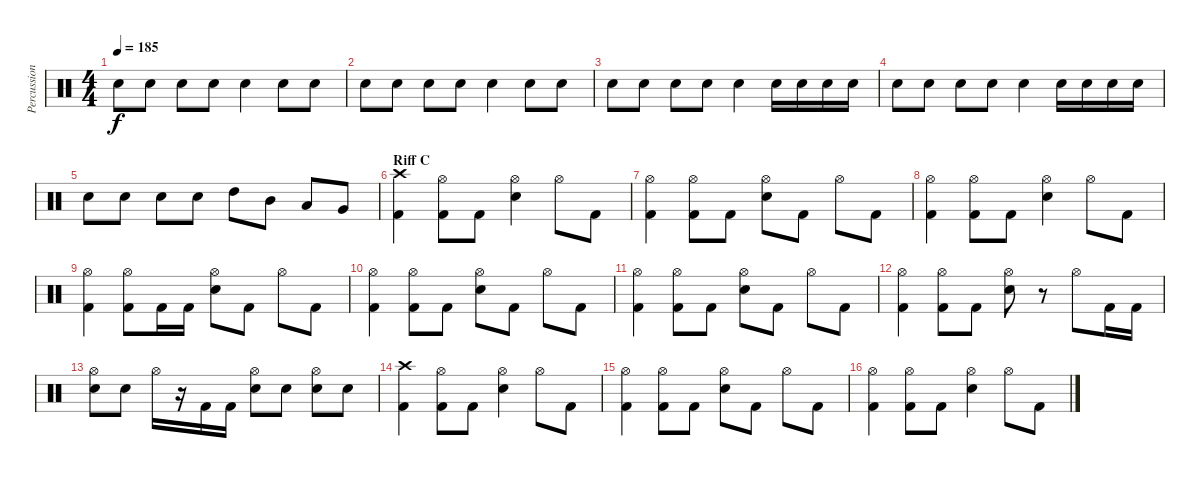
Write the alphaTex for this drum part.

\track ("Percussions" "Percussion") {instrument percussion}
\staff {score}
\articulation defaults
\ts (4 4)
\tempo 185
\clef neutral
\ks c "Electric Snare (hit)".8{dy f} "Electric Snare (hit)".8 "Electric Snare (hit)".8 "Electric Snare (hit)".8 "Electric Snare (hit)".4 "Electric Snare (hit)".8 "Electric Snare (hit)".8
|
"Electric Snare (hit)".8 "Electric Snare (hit)".8 "Electric Snare (hit)".8 "Electric Snare (hit)".8 "Electric Snare (hit)".4 "Electric Snare (hit)".8 "Electric Snare (hit)".8 |
"Electric Snare (hit)".8 "Electric Snare (hit)".8 "Electric Snare (hit)".8 "Electric Snare (hit)".8 "Electric Snare (hit)".4 "Electric Snare (hit)".16 "Electric Snare (hit)".16 "Electric Snare (hit)".16 "Electric Snare (hit)".16 |
"Electric Snare (hit)".8 "Electric Snare (hit)".8 "Electric Snare (hit)".8 "Electric Snare (hit)".8 "Electric Snare (hit)".4 "Electric Snare (hit)".16 "Electric Snare (hit)".16 "Electric Snare (hit)".16 "Electric Snare (hit)".16 |
"Electric Snare (hit)".8 "Electric Snare (hit)".8 "Electric Snare (hit)".8 "Electric Snare (hit)".8 "High Tom (hit)".8 "Mid Tom (hit)".8 "Low Tom (hit)".8 "Very Low Tom (hit)".8 |
\section ("" "Riff C")
("Crash high (hit)" "Kick (hit) 2").4 ("Hi-Hat (open)" "Kick (hit) 2").8 "Kick (hit) 2".8 ("Hi-Hat (open)" "Snare (hit) 2").4 "Hi-Hat (open)".8 "Kick (hit) 2".8 |
("Hi-Hat (open)" "Kick (hit) 2").4 ("Hi-Hat (open)" "Kick (hit) 2").8 "Kick (hit) 2".8 ("Hi-Hat (open)" "Snare (hit) 2").8 "Kick (hit) 2".8 "Hi-Hat (open)".8 "Kick (hit) 2".8 |
("Hi-Hat (open)" "Kick (hit) 2").4 ("Hi-Hat (open)" "Kick (hit) 2").8 "Kick (hit) 2".8 ("Hi-Hat (open)" "Snare (hit) 2").4 "Hi-Hat (open)".8 "Kick (hit) 2".8 |
("Hi-Hat (open)" "Kick (hit) 2").4 ("Hi-Hat (open)" "Kick (hit) 2").8 "Kick (hit) 2".16 "Kick (hit) 2".16 ("Hi-Hat (open)" "Snare (hit) 2").8 "Kick (hit) 2".8 "Hi-Hat (open)".8 "Kick (hit) 2".8 |
("Hi-Hat (open)" "Kick (hit) 2").4 ("Hi-Hat (open)" "Kick (hit) 2").8 "Kick (hit) 2".8 ("Hi-Hat (open)" "Snare (hit) 2").8 "Kick (hit) 2".8 "Hi-Hat (open)".8 "Kick (hit) 2".8 |
("Hi-Hat (open)" "Kick (hit) 2").4 ("Hi-Hat (open)" "Kick (hit) 2").8 "Kick (hit) 2".8 ("Hi-Hat (open)" "Snare (hit) 2").8 "Kick (hit) 2".8 "Hi-Hat (open)".8 "Kick (hit) 2".8 |
("Hi-Hat (open)" "Kick (hit) 2").4 ("Hi-Hat (open)" "Kick (hit) 2").8 "Kick (hit) 2".8 ("Hi-Hat (open)" "Snare (hit) 2").8 r.8 "Hi-Hat (open)".8 "Kick (hit) 2".16 "Kick (hit) 2".16 |
("Hi-Hat (open)" "Snare (hit) 2").8 "Snare (hit) 2".8 "Hi-Hat (open)".16 r.16 "Kick (hit) 2".16 "Kick (hit) 2".16 ("Hi-Hat (open)" "Snare (hit) 2").8 "Snare (hit) 2".8 ("Hi-Hat (open)" "Snare (hit) 2").8 "Snare (hit) 2".8 |
("Crash high (hit)" "Kick (hit) 2").4 ("Hi-Hat (open)" "Kick (hit) 2").8 "Kick (hit) 2".8 ("Hi-Hat (open)" "Snare (hit) 2").4 "Hi-Hat (open)".8 "Kick (hit) 2".8 |
("Hi-Hat (open)" "Kick (hit) 2").4 ("Hi-Hat (open)" "Kick (hit) 2").8 "Kick (hit) 2".8 ("Hi-Hat (open)" "Snare (hit) 2").8 "Kick (hit) 2".8 "Hi-Hat (open)".8 "Kick (hit) 2".8 |
("Hi-Hat (open)" "Kick (hit) 2").4 ("Hi-Hat (open)" "Kick (hit) 2").8 "Kick (hit) 2".8 ("Hi-Hat (open)" "Snare (hit) 2").4 "Hi-Hat (open)".8 "Kick (hit) 2".8
